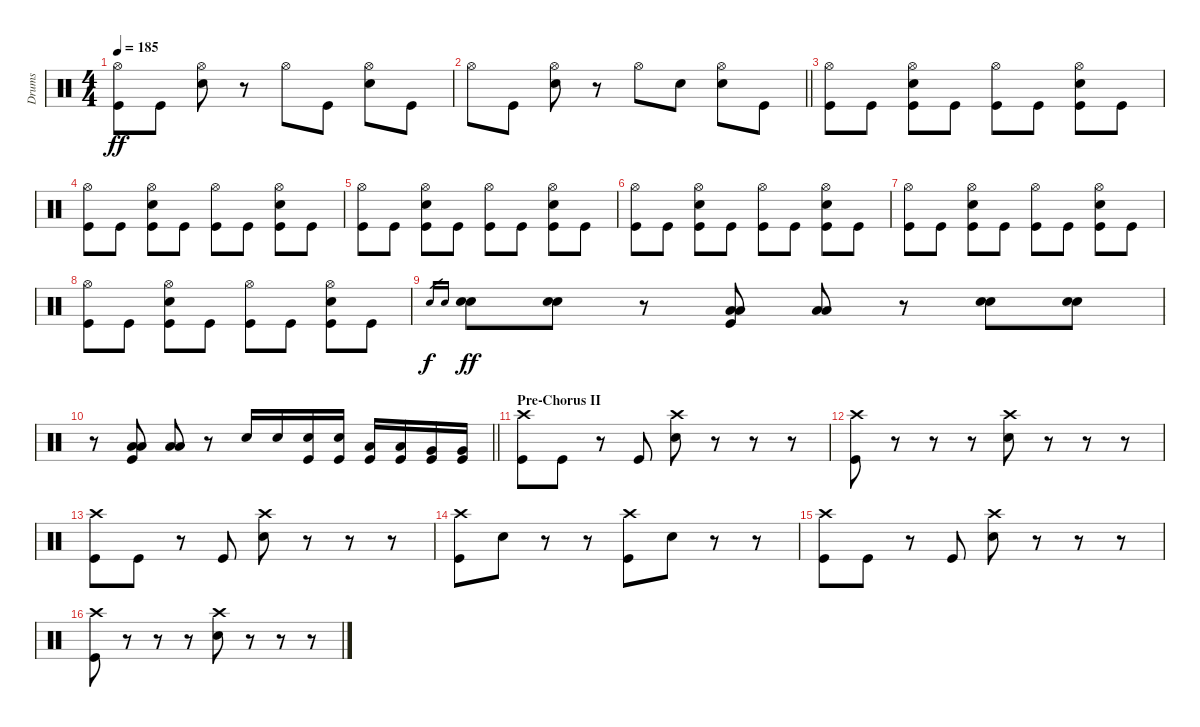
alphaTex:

\track ("Drums" "Drums") {instrument percussion}
\staff {score}
\articulation defaults
\ts (4 4)
\tempo 185
\clef neutral
\ks c
("Hi-Hat (open)" "Kick (hit)").8{dy ff} "Kick (hit)".8 ("Hi-Hat (open)" "Electric Snare (hit)").8 r.8 "Hi-Hat (open)".8 "Kick (hit)".8 ("Hi-Hat (open)" "Electric Snare (hit)").8 "Kick (hit)".8 |
\barLineRight lightlight "Hi-Hat (open)".8 "Kick (hit)".8
("Hi-Hat (open)" "Electric Snare (hit)").8 r.8 "Hi-Hat (open)".8 "Electric Snare (hit)".8 ("Hi-Hat (open)" "Electric Snare (hit)").8 "Kick (hit)".8 |
("Hi-Hat (open)" "Kick (hit)").8 "Kick (hit)".8 ("Hi-Hat (open)" "Electric Snare (hit)" "Kick (hit)").8 "Kick (hit)".8 ("Hi-Hat (open)" "Kick (hit)").8 "Kick (hit)".8 ("Hi-Hat (open)" "Electric Snare (hit)" "Kick (hit)").8 "Kick (hit)".8 |
("Hi-Hat (open)" "Kick (hit)").8 "Kick (hit)".8 ("Hi-Hat (open)" "Electric Snare (hit)" "Kick (hit)").8 "Kick (hit)".8 ("Hi-Hat (open)" "Kick (hit)").8 "Kick (hit)".8 ("Hi-Hat (open)" "Electric Snare (hit)" "Kick (hit)").8 "Kick (hit)".8 |
("Hi-Hat (open)" "Kick (hit)").8 "Kick (hit)".8 ("Hi-Hat (open)" "Electric Snare (hit)" "Kick (hit)").8 "Kick (hit)".8 ("Hi-Hat (open)" "Kick (hit)").8 "Kick (hit)".8 ("Hi-Hat (open)" "Electric Snare (hit)" "Kick (hit)").8 "Kick (hit)".8 |
("Hi-Hat (open)" "Kick (hit)").8 "Kick (hit)".8 ("Hi-Hat (open)" "Electric Snare (hit)" "Kick (hit)").8 "Kick (hit)".8 ("Hi-Hat (open)" "Kick (hit)").8 "Kick (hit)".8 ("Hi-Hat (open)" "Electric Snare (hit)" "Kick (hit)").8 "Kick (hit)".8 |
("Hi-Hat (open)" "Kick (hit)").8 "Kick (hit)".8 ("Hi-Hat (open)" "Electric Snare (hit)" "Kick (hit)").8 "Kick (hit)".8 ("Hi-Hat (open)" "Kick (hit)").8 "Kick (hit)".8 ("Hi-Hat (open)" "Electric Snare (hit)" "Kick (hit)").8 "Kick (hit)".8 |
("Hi-Hat (open)" "Kick (hit)").8 "Kick (hit)".8 ("Hi-Hat (open)" "Electric Snare (hit)" "Kick (hit)").8 "Kick (hit)".8 ("Hi-Hat (open)" "Kick (hit)").8 "Kick (hit)".8 ("Hi-Hat (open)" "Electric Snare (hit)" "Kick (hit)").8 "Kick (hit)".8 |
"Electric Snare (hit)".16{gr dy f} "Electric Snare (hit)".16{gr} ("Electric Snare (hit)" "Electric Snare (hit)").8{dy ff} ("Electric Snare (hit)" "Electric Snare (hit)").8 r.8 ("Low Floor Tom (hit)" "Low Floor Tom (hit)" "Kick (hit)").8 ("Low Floor Tom (hit)" "Low Floor Tom (hit)").8 r.8 ("Electric Snare (hit)" "Electric Snare (hit)").8 ("Electric Snare (hit)" "Electric Snare (hit)").8 |
\barLineRight lightlight
r.8 ("Low Floor Tom (hit)" "Low Floor Tom (hit)" "Kick (hit)").8 ("Low Floor Tom (hit)" "Low Floor Tom (hit)").8 r.8 "Electric Snare (hit)".16 "Electric Snare (hit)".16 ("Electric Snare (hit)" "Kick (hit)").16 ("Electric Snare (hit)" "Kick (hit)").16 ("Low Floor Tom (hit)" "Kick (hit)").16 ("Low Floor Tom (hit)" "Kick (hit)").16 ("Very Low Tom (hit)" "Kick (hit)").16 ("Very Low Tom (hit)" "Kick (hit)").16 |
\section ("" "Pre-Chorus II")
("Crash high (hit)" "Kick (hit)").8 "Kick (hit)".8 r.8 "Kick (hit)".8 ("Crash high (hit)" "Electric Snare (hit)").8 r.8 r.8 r.8 |
("Crash high (hit)" "Kick (hit)").8 r.8 r.8 r.8 ("Crash high (hit)" "Electric Snare (hit)").8 r.8 r.8 r.8 |
("Crash high (hit)" "Kick (hit)").8 "Kick (hit)".8 r.8 "Kick (hit)".8 ("Crash high (hit)" "Electric Snare (hit)").8 r.8 r.8 r.8 |
("Crash high (hit)" "Kick (hit)").8 "Electric Snare (hit)".8 r.8 r.8 ("Crash high (hit)" "Kick (hit)").8 "Electric Snare (hit)".8 r.8 r.8 |
("Crash high (hit)" "Kick (hit)").8 "Kick (hit)".8 r.8 "Kick (hit)".8 ("Crash high (hit)" "Electric Snare (hit)").8 r.8 r.8 r.8 |
("Crash high (hit)" "Kick (hit)").8 r.8 r.8 r.8 ("Crash high (hit)" "Electric Snare (hit)").8 r.8 r.8 r.8
